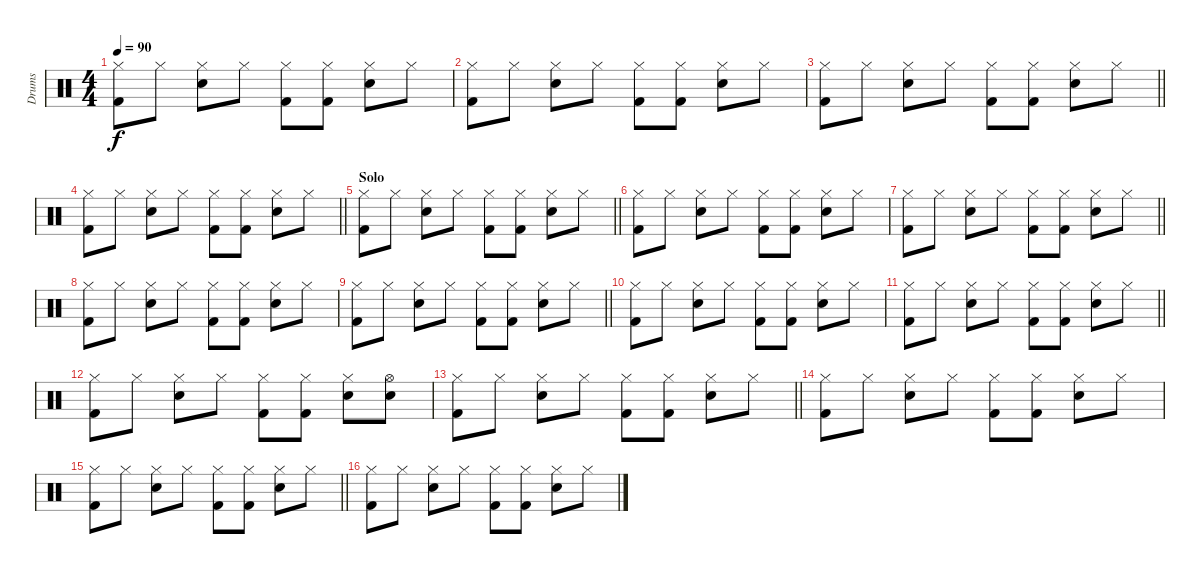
\track ("Drums" "Drums") {instrument percussion}
\staff {score}
\articulation defaults
\ts (4 4)
\tempo 90
\clef neutral
\ks c
("Hi-Hat (closed)" "Kick (hit) 2").8{dy f} "Hi-Hat (closed)".8 ("Hi-Hat (closed)" "Electric Snare (hit)").8 "Hi-Hat (closed)".8 ("Hi-Hat (closed)" "Kick (hit) 2").8 ("Hi-Hat (closed)" "Kick (hit) 2").8 ("Hi-Hat (closed)" "Electric Snare (hit)").8 "Hi-Hat (closed)".8 |
("Hi-Hat (closed)" "Kick (hit) 2").8 "Hi-Hat (closed)".8 ("Hi-Hat (closed)" "Electric Snare (hit)").8 "Hi-Hat (closed)".8 ("Hi-Hat (closed)" "Kick (hit) 2").8 ("Hi-Hat (closed)" "Kick (hit) 2").8 ("Hi-Hat (closed)" "Electric Snare (hit)").8 "Hi-Hat (closed)".8 |
\barLineRight lightlight
("Hi-Hat (closed)" "Kick (hit) 2").8 "Hi-Hat (closed)".8 ("Hi-Hat (closed)" "Electric Snare (hit)").8 "Hi-Hat (closed)".8 ("Hi-Hat (closed)" "Kick (hit) 2").8 ("Hi-Hat (closed)" "Kick (hit) 2").8 ("Hi-Hat (closed)" "Electric Snare (hit)").8 "Hi-Hat (closed)".8 |
\barLineRight lightlight
("Hi-Hat (closed)" "Kick (hit) 2").8 "Hi-Hat (closed)".8 ("Hi-Hat (closed)" "Electric Snare (hit)").8 "Hi-Hat (closed)".8 ("Hi-Hat (closed)" "Kick (hit) 2").8 ("Hi-Hat (closed)" "Kick (hit) 2").8 ("Hi-Hat (closed)" "Electric Snare (hit)").8 "Hi-Hat (closed)".8 |
\section ("" "Solo")
\barLineRight lightlight
("Hi-Hat (closed)" "Kick (hit) 2").8 "Hi-Hat (closed)".8 ("Hi-Hat (closed)" "Electric Snare (hit)").8 "Hi-Hat (closed)".8 ("Hi-Hat (closed)" "Kick (hit) 2").8 ("Hi-Hat (closed)" "Kick (hit) 2").8 ("Hi-Hat (closed)" "Electric Snare (hit)").8 "Hi-Hat (closed)".8 |
("Hi-Hat (closed)" "Kick (hit) 2").8 "Hi-Hat (closed)".8 ("Hi-Hat (closed)" "Electric Snare (hit)").8 "Hi-Hat (closed)".8 ("Hi-Hat (closed)" "Kick (hit) 2").8 ("Hi-Hat (closed)" "Kick (hit) 2").8 ("Hi-Hat (closed)" "Electric Snare (hit)").8 "Hi-Hat (closed)".8 |
\barLineRight lightlight
("Hi-Hat (closed)" "Kick (hit) 2").8 "Hi-Hat (closed)".8 ("Hi-Hat (closed)" "Electric Snare (hit)").8 "Hi-Hat (closed)".8 ("Hi-Hat (closed)" "Kick (hit) 2").8 ("Hi-Hat (closed)" "Kick (hit) 2").8 ("Hi-Hat (closed)" "Electric Snare (hit)").8 "Hi-Hat (closed)".8 |
("Hi-Hat (closed)" "Kick (hit) 2").8 "Hi-Hat (closed)".8 ("Hi-Hat (closed)" "Electric Snare (hit)").8 "Hi-Hat (closed)".8 ("Hi-Hat (closed)" "Kick (hit) 2").8 ("Hi-Hat (closed)" "Kick (hit) 2").8 ("Hi-Hat (closed)" "Electric Snare (hit)").8 "Hi-Hat (closed)".8 |
\barLineRight lightlight
("Hi-Hat (closed)" "Kick (hit) 2").8 "Hi-Hat (closed)".8 ("Hi-Hat (closed)" "Electric Snare (hit)").8 "Hi-Hat (closed)".8 ("Hi-Hat (closed)" "Kick (hit) 2").8 ("Hi-Hat (closed)" "Kick (hit) 2").8 ("Hi-Hat (closed)" "Electric Snare (hit)").8 "Hi-Hat (closed)".8 |
("Hi-Hat (closed)" "Kick (hit) 2").8 "Hi-Hat (closed)".8 ("Hi-Hat (closed)" "Electric Snare (hit)").8 "Hi-Hat (closed)".8 ("Hi-Hat (closed)" "Kick (hit) 2").8 ("Hi-Hat (closed)" "Kick (hit) 2").8 ("Hi-Hat (closed)" "Electric Snare (hit)").8 "Hi-Hat (closed)".8 |
\barLineRight lightlight
("Hi-Hat (closed)" "Kick (hit) 2").8 "Hi-Hat (closed)".8 ("Hi-Hat (closed)" "Electric Snare (hit)").8 "Hi-Hat (closed)".8 ("Hi-Hat (closed)" "Kick (hit) 2").8 ("Hi-Hat (closed)" "Kick (hit) 2").8 ("Hi-Hat (closed)" "Electric Snare (hit)").8 "Hi-Hat (closed)".8 |
("Hi-Hat (closed)" "Kick (hit) 2").8 "Hi-Hat (closed)".8 ("Hi-Hat (closed)" "Electric Snare (hit)").8 "Hi-Hat (closed)".8 ("Hi-Hat (closed)" "Kick (hit) 2").8 ("Hi-Hat (closed)" "Kick (hit) 2").8 ("Hi-Hat (closed)" "Electric Snare (hit)").8 ("Hi-Hat (open)" "Electric Snare (hit)").8 |
\barLineRight lightlight
("Hi-Hat (closed)" "Kick (hit) 2").8 "Hi-Hat (closed)".8 ("Hi-Hat (closed)" "Electric Snare (hit)").8 "Hi-Hat (closed)".8 ("Hi-Hat (closed)" "Kick (hit) 2").8 ("Hi-Hat (closed)" "Kick (hit) 2").8 ("Hi-Hat (closed)" "Electric Snare (hit)").8 "Hi-Hat (closed)".8 |
("Hi-Hat (closed)" "Kick (hit) 2").8 "Hi-Hat (closed)".8 ("Hi-Hat (closed)" "Electric Snare (hit)").8 "Hi-Hat (closed)".8 ("Hi-Hat (closed)" "Kick (hit) 2").8 ("Hi-Hat (closed)" "Kick (hit) 2").8 ("Hi-Hat (closed)" "Electric Snare (hit)").8 "Hi-Hat (closed)".8 |
\barLineRight lightlight
("Hi-Hat (closed)" "Kick (hit) 2").8 "Hi-Hat (closed)".8 ("Hi-Hat (closed)" "Electric Snare (hit)").8 "Hi-Hat (closed)".8 ("Hi-Hat (closed)" "Kick (hit) 2").8 ("Hi-Hat (closed)" "Kick (hit) 2").8 ("Hi-Hat (closed)" "Electric Snare (hit)").8 "Hi-Hat (closed)".8 |
("Hi-Hat (closed)" "Kick (hit) 2").8 "Hi-Hat (closed)".8 ("Hi-Hat (closed)" "Electric Snare (hit)").8 "Hi-Hat (closed)".8 ("Hi-Hat (closed)" "Kick (hit) 2").8 ("Hi-Hat (closed)" "Kick (hit) 2").8 ("Hi-Hat (closed)" "Electric Snare (hit)").8 "Hi-Hat (closed)".8
